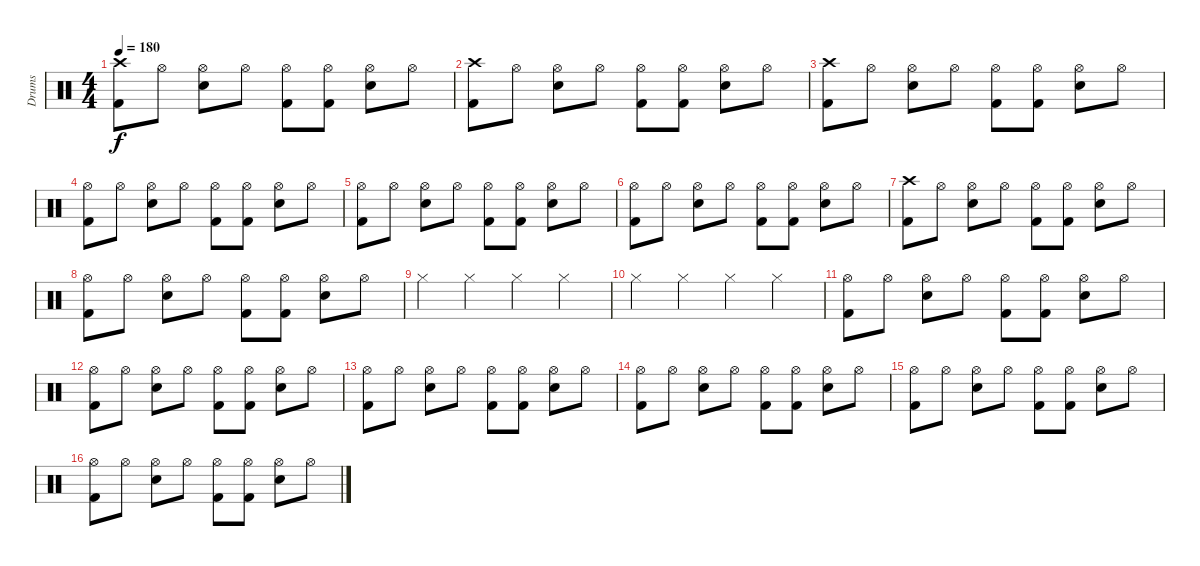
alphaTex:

\track ("Drums" "Drums") {instrument percussion}
\staff {score}
\articulation defaults
\ts (4 4)
\tempo 180
\clef neutral
\ks c
("Crash high (hit)" "Kick (hit) 2").8{dy f} "Hi-Hat (open)".8 ("Hi-Hat (open)" "Snare (hit) 2").8 "Hi-Hat (open)".8 ("Hi-Hat (open)" "Kick (hit) 2").8 ("Hi-Hat (open)" "Kick (hit) 2").8 ("Hi-Hat (open)" "Snare (hit) 2").8 "Hi-Hat (open)".8 |
("Crash high (hit)" "Kick (hit) 2").8 "Hi-Hat (open)".8 ("Hi-Hat (open)" "Snare (hit) 2").8 "Hi-Hat (open)".8 ("Hi-Hat (open)" "Kick (hit) 2").8 ("Hi-Hat (open)" "Kick (hit) 2").8 ("Hi-Hat (open)" "Snare (hit) 2").8 "Hi-Hat (open)".8 |
("Crash high (hit)" "Kick (hit) 2").8 "Hi-Hat (open)".8 ("Hi-Hat (open)" "Snare (hit) 2").8 "Hi-Hat (open)".8 ("Hi-Hat (open)" "Kick (hit) 2").8 ("Hi-Hat (open)" "Kick (hit) 2").8 ("Hi-Hat (open)" "Snare (hit) 2").8 "Hi-Hat (open)".8 |
("Hi-Hat (open)" "Kick (hit) 2").8 "Hi-Hat (open)".8 ("Hi-Hat (open)" "Snare (hit) 2").8 "Hi-Hat (open)".8 ("Hi-Hat (open)" "Kick (hit) 2").8 ("Hi-Hat (open)" "Kick (hit) 2").8 ("Hi-Hat (open)" "Snare (hit) 2").8 "Hi-Hat (open)".8 |
("Hi-Hat (open)" "Kick (hit) 2").8 "Hi-Hat (open)".8 ("Hi-Hat (open)" "Snare (hit) 2").8 "Hi-Hat (open)".8 ("Hi-Hat (open)" "Kick (hit) 2").8 ("Hi-Hat (open)" "Kick (hit) 2").8 ("Hi-Hat (open)" "Snare (hit) 2").8 "Hi-Hat (open)".8 |
("Hi-Hat (open)" "Kick (hit) 2").8 "Hi-Hat (open)".8 ("Hi-Hat (open)" "Snare (hit) 2").8 "Hi-Hat (open)".8 ("Hi-Hat (open)" "Kick (hit) 2").8 ("Hi-Hat (open)" "Kick (hit) 2").8 ("Hi-Hat (open)" "Snare (hit) 2").8 "Hi-Hat (open)".8 |
("Crash high (hit)" "Kick (hit) 2").8 "Hi-Hat (open)".8 ("Hi-Hat (open)" "Snare (hit) 2").8 "Hi-Hat (open)".8 ("Hi-Hat (open)" "Kick (hit) 2").8 ("Hi-Hat (open)" "Kick (hit) 2").8 ("Hi-Hat (open)" "Snare (hit) 2").8 "Hi-Hat (open)".8 |
("Hi-Hat (open)" "Kick (hit) 2").8 "Hi-Hat (open)".8 ("Hi-Hat (open)" "Snare (hit) 2").8 "Hi-Hat (open)".8 ("Hi-Hat (open)" "Kick (hit) 2").8 ("Hi-Hat (open)" "Kick (hit) 2").8 ("Hi-Hat (open)" "Snare (hit) 2").8 "Hi-Hat (open)".8 |
"Hi-Hat (closed)".4 "Hi-Hat (closed)".4 "Hi-Hat (closed)".4 "Hi-Hat (closed)".4 |
"Hi-Hat (closed)".4 "Hi-Hat (closed)".4 "Hi-Hat (closed)".4 "Hi-Hat (closed)".4 |
("Hi-Hat (open)" "Kick (hit) 2").8 "Hi-Hat (open)".8 ("Hi-Hat (open)" "Snare (hit) 2").8 "Hi-Hat (open)".8 ("Hi-Hat (open)" "Kick (hit) 2").8 ("Hi-Hat (open)" "Kick (hit) 2").8 ("Hi-Hat (open)" "Snare (hit) 2").8 "Hi-Hat (open)".8 |
("Hi-Hat (open)" "Kick (hit) 2").8 "Hi-Hat (open)".8 ("Hi-Hat (open)" "Snare (hit) 2").8 "Hi-Hat (open)".8 ("Hi-Hat (open)" "Kick (hit) 2").8 ("Hi-Hat (open)" "Kick (hit) 2").8 ("Hi-Hat (open)" "Snare (hit) 2").8 "Hi-Hat (open)".8 |
("Hi-Hat (open)" "Kick (hit) 2").8 "Hi-Hat (open)".8 ("Hi-Hat (open)" "Snare (hit) 2").8 "Hi-Hat (open)".8 ("Hi-Hat (open)" "Kick (hit) 2").8 ("Hi-Hat (open)" "Kick (hit) 2").8 ("Hi-Hat (open)" "Snare (hit) 2").8 "Hi-Hat (open)".8 |
("Hi-Hat (open)" "Kick (hit) 2").8 "Hi-Hat (open)".8 ("Hi-Hat (open)" "Snare (hit) 2").8 "Hi-Hat (open)".8 ("Hi-Hat (open)" "Kick (hit) 2").8 ("Hi-Hat (open)" "Kick (hit) 2").8 ("Hi-Hat (open)" "Snare (hit) 2").8 "Hi-Hat (open)".8 |
("Hi-Hat (open)" "Kick (hit) 2").8 "Hi-Hat (open)".8 ("Hi-Hat (open)" "Snare (hit) 2").8 "Hi-Hat (open)".8 ("Hi-Hat (open)" "Kick (hit) 2").8 ("Hi-Hat (open)" "Kick (hit) 2").8 ("Hi-Hat (open)" "Snare (hit) 2").8 "Hi-Hat (open)".8 |
("Hi-Hat (open)" "Kick (hit) 2").8 "Hi-Hat (open)".8 ("Hi-Hat (open)" "Snare (hit) 2").8 "Hi-Hat (open)".8 ("Hi-Hat (open)" "Kick (hit) 2").8 ("Hi-Hat (open)" "Kick (hit) 2").8 ("Hi-Hat (open)" "Snare (hit) 2").8 "Hi-Hat (open)".8
